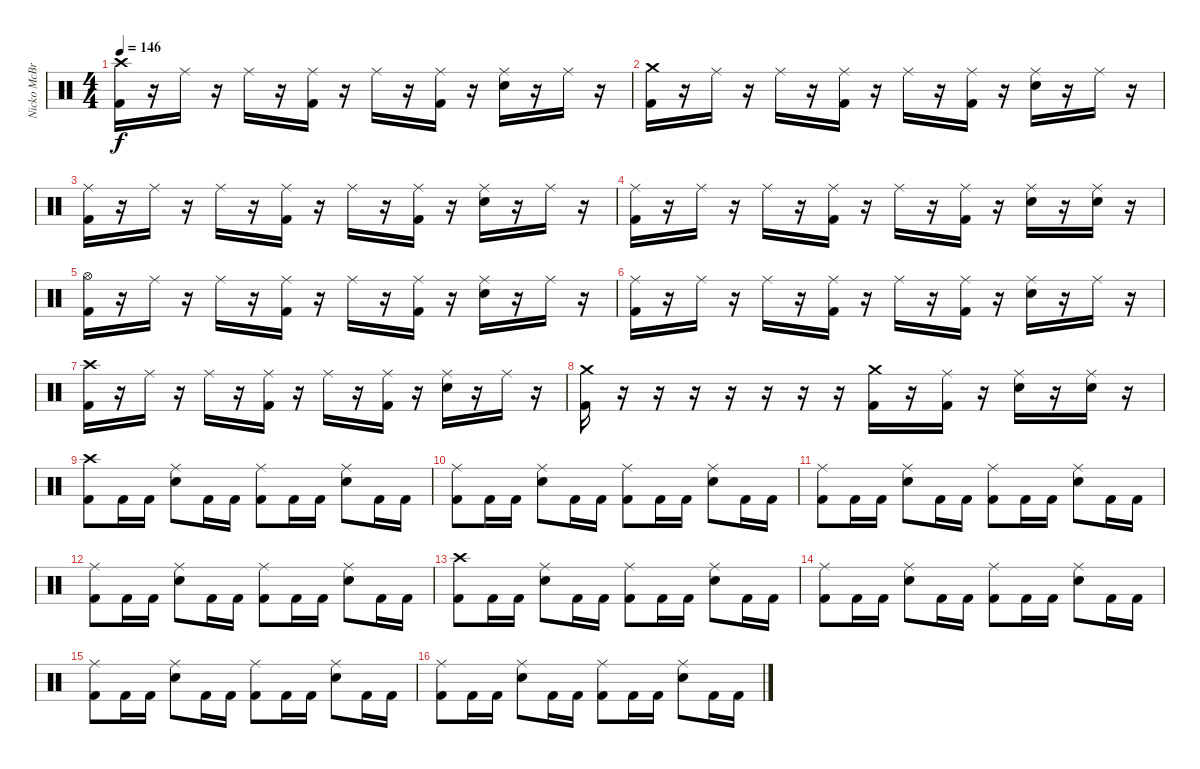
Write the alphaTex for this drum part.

\track ("Nicko McBrain" "Nicko McBr") {instrument percussion}
\staff {score}
\articulation defaults
\ts (4 4)
\tempo 146
\clef neutral
\ks c
("Crash high (hit)" "Kick (hit) 2").16{dy f} r.16 "Ride (middle)".16 r.16 "Ride (middle)".16 r.16 ("Ride (middle)" "Kick (hit) 2").16 r.16 "Ride (middle)".16 r.16 ("Ride (middle)" "Kick (hit) 2").16 r.16 ("Ride (middle)" "Snare (hit) 2").16 r.16 "Ride (middle)".16 r.16 |
("Crash medium (hit)" "Kick (hit) 2").16 r.16 "Ride (middle)".16 r.16 "Ride (middle)".16 r.16 ("Ride (middle)" "Kick (hit) 2").16 r.16 "Ride (middle)".16 r.16 ("Ride (middle)" "Kick (hit) 2").16 r.16 ("Ride (middle)" "Snare (hit) 2").16 r.16 "Ride (middle)".16 r.16 |
("Ride (middle)" "Kick (hit) 2").16 r.16 "Ride (middle)".16 r.16 "Ride (middle)".16 r.16 ("Ride (middle)" "Kick (hit) 2").16 r.16 "Ride (middle)".16 r.16 ("Ride (middle)" "Kick (hit) 2").16 r.16 ("Ride (middle)" "Snare (hit) 2").16 r.16 "Ride (middle)".16 r.16 |
("Ride (middle)" "Kick (hit) 2").16 r.16 "Ride (middle)".16 r.16 "Ride (middle)".16 r.16 ("Ride (middle)" "Kick (hit) 2").16 r.16 "Ride (middle)".16 r.16 ("Ride (middle)" "Kick (hit) 2").16 r.16 ("Ride (middle)" "Snare (hit) 2").16 r.16 ("Ride (middle)" "Snare (hit) 2").16 r.16 |
("Hi-Hat (open)" "Kick (hit) 2").16 r.16 "Ride (middle)".16 r.16 "Ride (middle)".16 r.16 ("Ride (middle)" "Kick (hit) 2").16 r.16 "Ride (middle)".16 r.16 ("Ride (middle)" "Kick (hit) 2").16 r.16 ("Ride (middle)" "Snare (hit) 2").16 r.16 "Ride (middle)".16 r.16 |
("Ride (middle)" "Kick (hit) 2").16 r.16 "Ride (middle)".16 r.16 "Ride (middle)".16 r.16 ("Ride (middle)" "Kick (hit) 2").16 r.16 "Ride (middle)".16 r.16 ("Ride (middle)" "Kick (hit) 2").16 r.16 ("Ride (middle)" "Snare (hit) 2").16 r.16 "Ride (middle)".16 r.16 |
("Crash high (hit)" "Kick (hit) 2").16 r.16 "Ride (middle)".16 r.16 "Ride (middle)".16 r.16 ("Ride (middle)" "Kick (hit) 2").16 r.16 "Ride (middle)".16 r.16 ("Ride (middle)" "Kick (hit) 2").16 r.16 ("Ride (middle)" "Snare (hit) 2").16 r.16 "Ride (middle)".16 r.16 |
("Crash medium (hit)" "Kick (hit) 2").16 r.16 r.16 r.16 r.16 r.16 r.16 r.16 ("Crash medium (hit)" "Kick (hit) 2").16 r.16 ("Ride (middle)" "Kick (hit) 2").16 r.16 ("Ride (middle)" "Snare (hit) 2").16 r.16 ("Ride (middle)" "Snare (hit) 2").16 r.16 |
("Crash high (hit)" "Kick (hit) 2").8 "Kick (hit) 2".16 "Kick (hit) 2".16 ("Ride (middle)" "Snare (hit) 2").8 "Kick (hit) 2".16 "Kick (hit) 2".16 ("Ride (middle)" "Kick (hit) 2").8 "Kick (hit) 2".16 "Kick (hit) 2".16 ("Ride (middle)" "Snare (hit) 2").8 "Kick (hit) 2".16 "Kick (hit) 2".16 |
("Ride (middle)" "Kick (hit) 2").8 "Kick (hit) 2".16 "Kick (hit) 2".16 ("Ride (middle)" "Snare (hit) 2").8 "Kick (hit) 2".16 "Kick (hit) 2".16 ("Ride (middle)" "Kick (hit) 2").8 "Kick (hit) 2".16 "Kick (hit) 2".16 ("Ride (middle)" "Snare (hit) 2").8 "Kick (hit) 2".16 "Kick (hit) 2".16 |
("Ride (middle)" "Kick (hit) 2").8 "Kick (hit) 2".16 "Kick (hit) 2".16 ("Ride (middle)" "Snare (hit) 2").8 "Kick (hit) 2".16 "Kick (hit) 2".16 ("Ride (middle)" "Kick (hit) 2").8 "Kick (hit) 2".16 "Kick (hit) 2".16 ("Ride (middle)" "Snare (hit) 2").8 "Kick (hit) 2".16 "Kick (hit) 2".16 |
("Ride (middle)" "Kick (hit) 2").8 "Kick (hit) 2".16 "Kick (hit) 2".16 ("Ride (middle)" "Snare (hit) 2").8 "Kick (hit) 2".16 "Kick (hit) 2".16 ("Ride (middle)" "Kick (hit) 2").8 "Kick (hit) 2".16 "Kick (hit) 2".16 ("Ride (middle)" "Snare (hit) 2").8 "Kick (hit) 2".16 "Kick (hit) 2".16 |
("Crash high (hit)" "Kick (hit) 2").8 "Kick (hit) 2".16 "Kick (hit) 2".16 ("Ride (middle)" "Snare (hit) 2").8 "Kick (hit) 2".16 "Kick (hit) 2".16 ("Ride (middle)" "Kick (hit) 2").8 "Kick (hit) 2".16 "Kick (hit) 2".16 ("Ride (middle)" "Snare (hit) 2").8 "Kick (hit) 2".16 "Kick (hit) 2".16 |
("Ride (middle)" "Kick (hit) 2").8 "Kick (hit) 2".16 "Kick (hit) 2".16 ("Ride (middle)" "Snare (hit) 2").8 "Kick (hit) 2".16 "Kick (hit) 2".16 ("Ride (middle)" "Kick (hit) 2").8 "Kick (hit) 2".16 "Kick (hit) 2".16 ("Ride (middle)" "Snare (hit) 2").8 "Kick (hit) 2".16 "Kick (hit) 2".16 |
("Ride (middle)" "Kick (hit) 2").8 "Kick (hit) 2".16 "Kick (hit) 2".16 ("Ride (middle)" "Snare (hit) 2").8 "Kick (hit) 2".16 "Kick (hit) 2".16 ("Ride (middle)" "Kick (hit) 2").8 "Kick (hit) 2".16 "Kick (hit) 2".16 ("Ride (middle)" "Snare (hit) 2").8 "Kick (hit) 2".16 "Kick (hit) 2".16 |
("Ride (middle)" "Kick (hit) 2").8 "Kick (hit) 2".16 "Kick (hit) 2".16 ("Ride (middle)" "Snare (hit) 2").8 "Kick (hit) 2".16 "Kick (hit) 2".16 ("Ride (middle)" "Kick (hit) 2").8 "Kick (hit) 2".16 "Kick (hit) 2".16 ("Ride (middle)" "Snare (hit) 2").8 "Kick (hit) 2".16 "Kick (hit) 2".16
